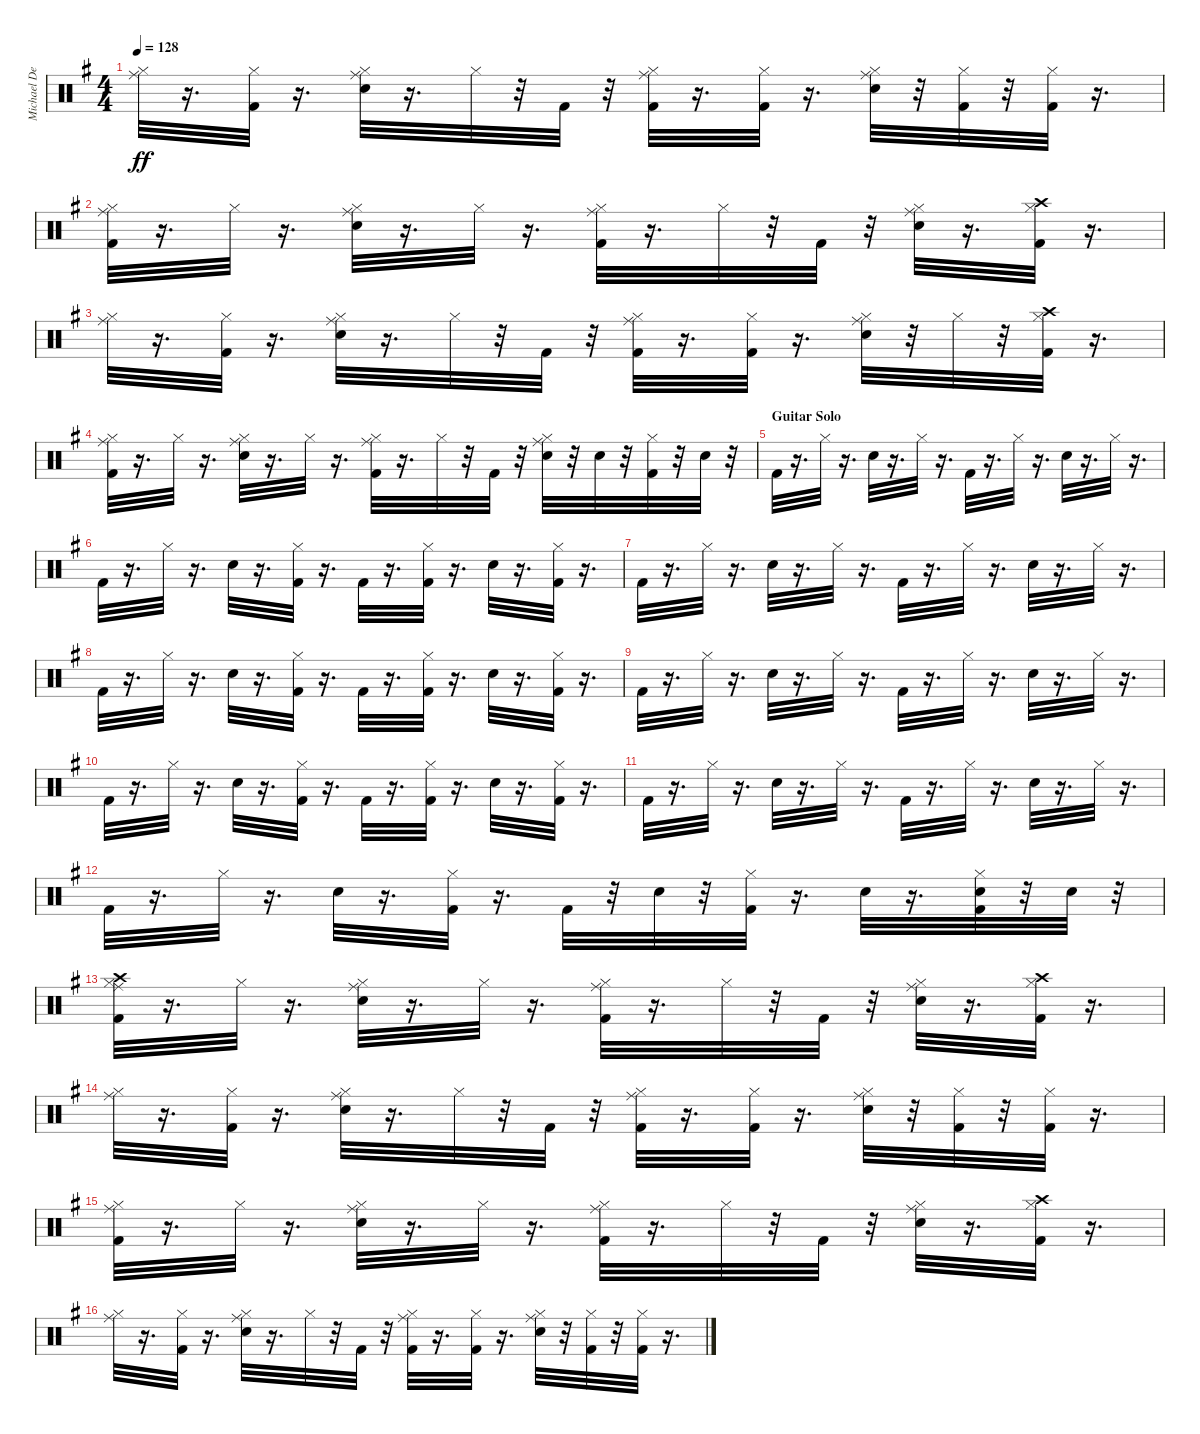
\track ("Michael DeRosier" "Michael De") {instrument percussion}
\staff {score}
\articulation defaults
\ts (4 4)
\tempo 128
\clef neutral
\ks g
("Hi-Hat (closed)" "Ride (middle)").32{dy ff} r.16{d} ("Kick (hit) 2" "Hi-Hat (closed)").32 r.16{d} ("Snare (hit) 2" "Hi-Hat (closed)" "Ride (middle)").32 r.16{d} "Hi-Hat (closed)".32 r.32 "Kick (hit) 2".32 r.32 ("Kick (hit) 2" "Hi-Hat (closed)" "Ride (middle)").32 r.16{d} ("Kick (hit) 2" "Hi-Hat (closed)").32 r.16{d} ("Snare (hit) 2" "Hi-Hat (closed)" "Ride (middle)").32 r.32 ("Kick (hit) 2" "Hi-Hat (closed)").32 r.32 ("Kick (hit) 2" "Hi-Hat (closed)").32 r.16{d} |
("Kick (hit) 2" "Hi-Hat (closed)" "Ride (middle)").32 r.16{d} "Hi-Hat (closed)".32 r.16{d} ("Snare (hit) 2" "Hi-Hat (closed)" "Ride (middle)").32 r.16{d} "Hi-Hat (closed)".32 r.16{d} ("Kick (hit) 2" "Hi-Hat (closed)" "Ride (middle)").32 r.16{d} "Hi-Hat (closed)".32 r.32 "Kick (hit) 2".32 r.32 ("Snare (hit) 2" "Hi-Hat (closed)" "Ride (middle)").32 r.16{d} ("Kick (hit) 2" "Hi-Hat (closed)" "Crash high (hit)").32 r.16{d} |
("Hi-Hat (closed)" "Ride (middle)").32 r.16{d} ("Kick (hit) 2" "Hi-Hat (closed)").32 r.16{d} ("Snare (hit) 2" "Hi-Hat (closed)" "Ride (middle)").32 r.16{d} "Hi-Hat (closed)".32 r.32 "Kick (hit) 2".32 r.32 ("Kick (hit) 2" "Hi-Hat (closed)" "Ride (middle)").32 r.16{d} ("Kick (hit) 2" "Hi-Hat (closed)").32 r.16{d} ("Snare (hit) 2" "Hi-Hat (closed)" "Ride (middle)").32 r.32 "Hi-Hat (closed)".32 r.32 ("Kick (hit) 2" "Hi-Hat (closed)" "Crash high (hit)").32 r.16{d} |
("Kick (hit) 2" "Hi-Hat (closed)" "Ride (middle)").32 r.16{d} "Hi-Hat (closed)".32 r.16{d} ("Snare (hit) 2" "Hi-Hat (closed)" "Ride (middle)").32 r.16{d} "Hi-Hat (closed)".32 r.16{d} ("Kick (hit) 2" "Hi-Hat (closed)" "Ride (middle)").32 r.16{d} "Hi-Hat (closed)".32 r.32 "Kick (hit) 2".32 r.32 ("Snare (hit) 2" "Hi-Hat (closed)" "Ride (middle)").32 r.32 "Snare (hit) 2".32 r.32 ("Kick (hit) 2" "Hi-Hat (closed)").32 r.32 "Snare (hit) 2".32 r.32 |
\section ("" "Guitar Solo")
"Kick (hit) 2".32 r.16{d} "Hi-Hat (closed)".32 r.16{d} "Snare (hit) 2".32 r.16{d} "Hi-Hat (closed)".32 r.16{d} "Kick (hit) 2".32 r.16{d} "Hi-Hat (closed)".32 r.16{d} "Snare (hit) 2".32 r.16{d} "Hi-Hat (closed)".32 r.16{d} |
"Kick (hit) 2".32 r.16{d} "Hi-Hat (closed)".32 r.16{d} "Snare (hit) 2".32 r.16{d} ("Kick (hit) 2" "Hi-Hat (closed)").32 r.16{d} "Kick (hit) 2".32 r.16{d} ("Kick (hit) 2" "Hi-Hat (closed)").32 r.16{d} "Snare (hit) 2".32 r.16{d} ("Kick (hit) 2" "Hi-Hat (closed)").32 r.16{d} |
"Kick (hit) 2".32 r.16{d} "Hi-Hat (closed)".32 r.16{d} "Snare (hit) 2".32 r.16{d} "Hi-Hat (closed)".32 r.16{d} "Kick (hit) 2".32 r.16{d} "Hi-Hat (closed)".32 r.16{d} "Snare (hit) 2".32 r.16{d} "Hi-Hat (closed)".32 r.16{d} |
"Kick (hit) 2".32 r.16{d} "Hi-Hat (closed)".32 r.16{d} "Snare (hit) 2".32 r.16{d} ("Kick (hit) 2" "Hi-Hat (closed)").32 r.16{d} "Kick (hit) 2".32 r.16{d} ("Kick (hit) 2" "Hi-Hat (closed)").32 r.16{d} "Snare (hit) 2".32 r.16{d} ("Kick (hit) 2" "Hi-Hat (closed)").32 r.16{d} |
"Kick (hit) 2".32 r.16{d} "Hi-Hat (closed)".32 r.16{d} "Snare (hit) 2".32 r.16{d} "Hi-Hat (closed)".32 r.16{d} "Kick (hit) 2".32 r.16{d} "Hi-Hat (closed)".32 r.16{d} "Snare (hit) 2".32 r.16{d} "Hi-Hat (closed)".32 r.16{d} |
"Kick (hit) 2".32 r.16{d} "Hi-Hat (closed)".32 r.16{d} "Snare (hit) 2".32 r.16{d} ("Kick (hit) 2" "Hi-Hat (closed)").32 r.16{d} "Kick (hit) 2".32 r.16{d} ("Kick (hit) 2" "Hi-Hat (closed)").32 r.16{d} "Snare (hit) 2".32 r.16{d} ("Kick (hit) 2" "Hi-Hat (closed)").32 r.16{d} |
"Kick (hit) 2".32 r.16{d} "Hi-Hat (closed)".32 r.16{d} "Snare (hit) 2".32 r.16{d} "Hi-Hat (closed)".32 r.16{d} "Kick (hit) 2".32 r.16{d} "Hi-Hat (closed)".32 r.16{d} "Snare (hit) 2".32 r.16{d} "Hi-Hat (closed)".32 r.16{d} |
"Kick (hit) 2".32 r.16{d} "Hi-Hat (closed)".32 r.16{d} "Snare (hit) 2".32 r.16{d} ("Kick (hit) 2" "Hi-Hat (closed)").32 r.16{d} "Kick (hit) 2".32 r.32 "Snare (hit) 2".32 r.32 ("Kick (hit) 2" "Hi-Hat (closed)").32 r.16{d} "Snare (hit) 2".32 r.16{d} ("Kick (hit) 2" "Snare (hit) 2" "Hi-Hat (closed)").32 r.32 "Snare (hit) 2".32 r.32 |
("Kick (hit) 2" "Hi-Hat (closed)" "Crash high (hit)" "Ride (middle)").32 r.16{d} "Hi-Hat (closed)".32 r.16{d} ("Snare (hit) 2" "Hi-Hat (closed)" "Ride (middle)").32 r.16{d} "Hi-Hat (closed)".32 r.16{d} ("Kick (hit) 2" "Hi-Hat (closed)" "Ride (middle)").32 r.16{d} "Hi-Hat (closed)".32 r.32 "Kick (hit) 2".32 r.32 ("Snare (hit) 2" "Hi-Hat (closed)" "Ride (middle)").32 r.16{d} ("Kick (hit) 2" "Hi-Hat (closed)" "Crash high (hit)").32 r.16{d} |
("Hi-Hat (closed)" "Ride (middle)").32 r.16{d} ("Kick (hit) 2" "Hi-Hat (closed)").32 r.16{d} ("Snare (hit) 2" "Hi-Hat (closed)" "Ride (middle)").32 r.16{d} "Hi-Hat (closed)".32 r.32 "Kick (hit) 2".32 r.32 ("Kick (hit) 2" "Hi-Hat (closed)" "Ride (middle)").32 r.16{d} ("Kick (hit) 2" "Hi-Hat (closed)").32 r.16{d} ("Snare (hit) 2" "Hi-Hat (closed)" "Ride (middle)").32 r.32 ("Kick (hit) 2" "Hi-Hat (closed)").32 r.32 ("Kick (hit) 2" "Hi-Hat (closed)").32 r.16{d} |
("Kick (hit) 2" "Hi-Hat (closed)" "Ride (middle)").32 r.16{d} "Hi-Hat (closed)".32 r.16{d} ("Snare (hit) 2" "Hi-Hat (closed)" "Ride (middle)").32 r.16{d} "Hi-Hat (closed)".32 r.16{d} ("Kick (hit) 2" "Hi-Hat (closed)" "Ride (middle)").32 r.16{d} "Hi-Hat (closed)".32 r.32 "Kick (hit) 2".32 r.32 ("Snare (hit) 2" "Hi-Hat (closed)" "Ride (middle)").32 r.16{d} ("Kick (hit) 2" "Hi-Hat (closed)" "Crash high (hit)").32 r.16{d} |
("Hi-Hat (closed)" "Ride (middle)").32 r.16{d} ("Kick (hit) 2" "Hi-Hat (closed)").32 r.16{d} ("Snare (hit) 2" "Hi-Hat (closed)" "Ride (middle)").32 r.16{d} "Hi-Hat (closed)".32 r.32 "Kick (hit) 2".32 r.32 ("Kick (hit) 2" "Hi-Hat (closed)" "Ride (middle)").32 r.16{d} ("Kick (hit) 2" "Hi-Hat (closed)").32 r.16{d} ("Snare (hit) 2" "Hi-Hat (closed)" "Ride (middle)").32 r.32 ("Kick (hit) 2" "Hi-Hat (closed)").32 r.32 ("Kick (hit) 2" "Hi-Hat (closed)").32 r.16{d}
